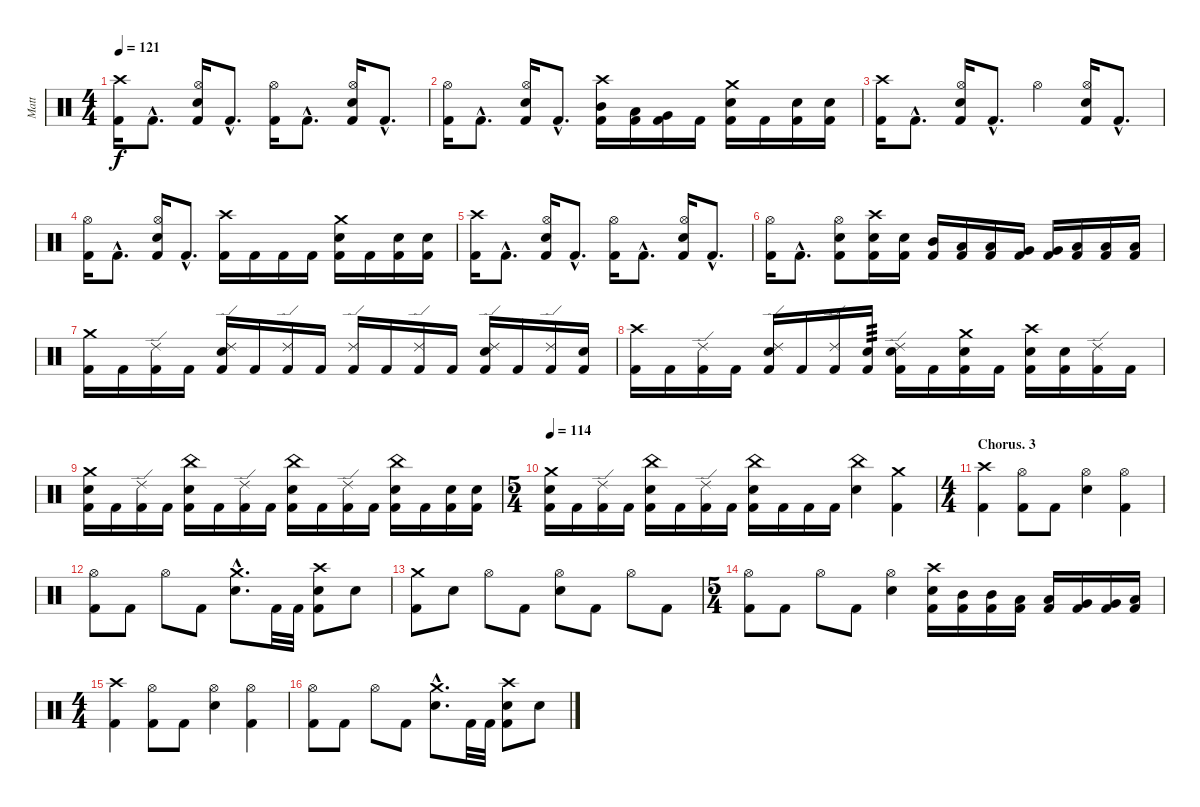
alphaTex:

\track ("Matt" "Matt") {instrument percussion}
\staff {score}
\articulation defaults
\ts (4 4)
\tempo 121
\clef neutral
\ks c
("Crash high (hit)" "Kick (hit) 2").16{dy f} "Kick (hit) 2"{hac}.8{d} ("Hi-Hat (open)" "Electric Snare (hit)" "Kick (hit) 2").16 "Kick (hit) 2"{hac}.8{d} ("Hi-Hat (open)" "Kick (hit) 2").16 "Kick (hit) 2"{hac}.8{d} ("Hi-Hat (open)" "Electric Snare (hit)" "Kick (hit) 2").16 "Kick (hit) 2"{hac}.8{d} |
("Hi-Hat (open)" "Kick (hit) 2").16 "Kick (hit) 2"{hac}.8{d} ("Hi-Hat (open)" "Electric Snare (hit)" "Kick (hit) 2").16 "Kick (hit) 2"{hac}.8{d} ("Crash high (hit)" "Mid Tom (hit)" "Kick (hit) 2").16 ("Low Tom (hit)" "Kick (hit) 2").16 ("Very Low Tom (hit)" "Kick (hit) 2").16 "Kick (hit) 2".16 ("Crash medium (hit)" "Electric Snare (hit)" "Kick (hit) 2").16 "Kick (hit) 2".16 ("Electric Snare (hit)" "Kick (hit) 2").16 ("Electric Snare (hit)" "Kick (hit) 2").16 |
("Crash high (hit)" "Kick (hit) 2").16 "Kick (hit) 2"{hac}.8{d} ("Hi-Hat (open)" "Electric Snare (hit)" "Kick (hit) 2").16 "Kick (hit) 2"{hac}.8{d} "Hi-Hat (open)".4 ("Hi-Hat (open)" "Electric Snare (hit)" "Kick (hit) 2").16 "Kick (hit) 2"{hac}.8{d} |
("Hi-Hat (open)" "Kick (hit) 2").16 "Kick (hit) 2"{hac}.8{d} ("Hi-Hat (open)" "Electric Snare (hit)" "Kick (hit) 2").16 "Kick (hit) 2"{hac}.8{d} ("Crash high (hit)" "Kick (hit) 2").16 "Kick (hit) 2".16 "Kick (hit) 2".16 "Kick (hit) 2".16 ("Crash medium (hit)" "Electric Snare (hit)" "Kick (hit) 2").16 "Kick (hit) 2".16 ("Electric Snare (hit)" "Kick (hit) 2").16 ("Electric Snare (hit)" "Kick (hit) 2").16 |
("Crash high (hit)" "Kick (hit) 2").16 "Kick (hit) 2"{hac}.8{d} ("Hi-Hat (open)" "Electric Snare (hit)" "Kick (hit) 2").16 "Kick (hit) 2"{hac}.8{d} ("Hi-Hat (open)" "Kick (hit) 2").16 "Kick (hit) 2"{hac}.8{d} ("Hi-Hat (open)" "Electric Snare (hit)" "Kick (hit) 2").16 "Kick (hit) 2"{hac}.8{d} |
("Hi-Hat (open)" "Kick (hit) 2").16 "Kick (hit) 2"{hac}.8{d} ("Hi-Hat (open)" "Electric Snare (hit)" "Kick (hit) 2").8 ("Crash high (hit)" "Electric Snare (hit)" "Kick (hit) 2").16 ("Electric Snare (hit)" "Kick (hit) 2").16 ("Mid Tom (hit)" "Kick (hit) 2").16 ("Low Tom (hit)" "Kick (hit) 2").16 ("Low Tom (hit)" "Kick (hit) 2").16 ("Very Low Tom (hit)" "Kick (hit) 2").16 ("Very Low Tom (hit)" "Kick (hit) 2").16 ("Low Floor Tom (hit)" "Kick (hit) 2").16 ("Low Floor Tom (hit)" "Kick (hit) 2").16 ("Low Floor Tom (hit)" "Kick (hit) 2").16 |
("Crash medium (hit)" "Kick (hit) 2").16 "Kick (hit) 2".16 ("Ride (edge) 2" "Kick (hit) 2").16 "Kick (hit) 2".16 ("Ride (edge) 2" "Electric Snare (hit)" "Kick (hit) 2").16 "Kick (hit) 2".16 ("Ride (edge) 2" "Kick (hit) 2").16 "Kick (hit) 2".16 ("Ride (edge) 2" "Kick (hit) 2").16 "Kick (hit) 2".16 ("Ride (edge) 2" "Kick (hit) 2").16 "Kick (hit) 2".16 ("Ride (edge) 2" "Electric Snare (hit)" "Kick (hit) 2").16 "Kick (hit) 2".16 ("Ride (edge) 2" "Kick (hit) 2").16 ("Electric Snare (hit)" "Kick (hit) 2").16 |
("Crash high (hit)" "Kick (hit) 2").16 "Kick (hit) 2".16 ("Ride (edge) 2" "Kick (hit) 2").16 "Kick (hit) 2".16 ("Ride (edge) 2" "Electric Snare (hit)" "Kick (hit) 2").16 "Kick (hit) 2".16 ("Ride (edge) 2" "Kick (hit) 2").16 ("Electric Snare (hit)" "Kick (hit) 2").16{tp 3} ("Ride (edge) 2" "Electric Snare (hit)" "Kick (hit) 2").16 "Kick (hit) 2".16 ("Crash medium (hit)" "Electric Snare (hit)" "Kick (hit) 2").16 "Kick (hit) 2".16 ("Crash high (hit)" "Electric Snare (hit)" "Kick (hit) 2").16 ("Electric Snare (hit)" "Kick (hit) 2").16 ("Ride (edge) 2" "Kick (hit) 2").16 "Kick (hit) 2".16 |
("Crash medium (hit)" "Electric Snare (hit)" "Kick (hit) 2").16 "Kick (hit) 2".16 ("Ride (edge) 2" "Kick (hit) 2").16 "Kick (hit) 2".16 ("China (hit)" "Electric Snare (hit)" "Kick (hit) 2").16 "Kick (hit) 2".16 ("Ride (edge) 2" "Kick (hit) 2").16 "Kick (hit) 2".16 ("China (hit)" "Electric Snare (hit)" "Kick (hit) 2").16 "Kick (hit) 2".16 ("Ride (edge) 2" "Kick (hit) 2").16 "Kick (hit) 2".16 ("China (hit)" "Electric Snare (hit)" "Kick (hit) 2").16 "Kick (hit) 2".16 ("Electric Snare (hit)" "Kick (hit) 2").16 ("Electric Snare (hit)" "Kick (hit) 2").16 |
\ts (5 4)
\tempo 114
("Crash medium (hit)" "Electric Snare (hit)" "Kick (hit) 2").16 "Kick (hit) 2".16 ("Ride (edge) 2" "Kick (hit) 2").16 "Kick (hit) 2".16 ("China (hit)" "Electric Snare (hit)" "Kick (hit) 2").16 "Kick (hit) 2".16 ("Ride (edge) 2" "Kick (hit) 2").16 "Kick (hit) 2".16 ("China (hit)" "Electric Snare (hit)" "Kick (hit) 2").16 "Kick (hit) 2".16 "Kick (hit) 2".16 "Kick (hit) 2".16 ("China (hit)" "Electric Snare (hit)").4 ("Crash medium (hit)" "Kick (hit) 2").4 |
\ts (4 4)
\section ("" "Chorus. 3")
("Crash high (hit)" "Kick (hit) 2").4 ("Hi-Hat (open)" "Kick (hit) 2").8 "Kick (hit) 2".8 ("Hi-Hat (open)" "Electric Snare (hit)").4 ("Hi-Hat (open)" "Kick (hit) 2").4 |
("Hi-Hat (open)" "Kick (hit) 2").8 "Kick (hit) 2".8 "Hi-Hat (open)".8 "Kick (hit) 2".8 ("Crash medium (hit)"{hac} "Electric Snare (hit)"{hac}).8{d} "Kick (hit) 2".32 "Kick (hit) 2".32 ("Crash high (hit)" "Electric Snare (hit)" "Kick (hit) 2").8 "Electric Snare (hit)".8 |
("Crash medium (hit)" "Kick (hit) 2").8 "Electric Snare (hit)".8 "Hi-Hat (open)".8 "Kick (hit) 2".8 ("Hi-Hat (open)" "Electric Snare (hit)").8 "Kick (hit) 2".8 "Hi-Hat (open)".8 "Kick (hit) 2".8 |
\ts (5 4)
("Hi-Hat (open)" "Kick (hit) 2").8 "Kick (hit) 2".8 "Hi-Hat (open)".8 "Kick (hit) 2".8 ("Hi-Hat (open)" "Electric Snare (hit)").4 ("Crash high (hit)" "Electric Snare (hit)" "Kick (hit) 2").16 ("Mid Tom (hit)" "Kick (hit) 2").16 ("Mid Tom (hit)" "Kick (hit) 2").16 ("Low Tom (hit)" "Kick (hit) 2").16 ("Low Tom (hit)" "Kick (hit) 2").16 ("Very Low Tom (hit)" "Kick (hit) 2").16 ("Very Low Tom (hit)" "Kick (hit) 2").16 ("Low Floor Tom (hit)" "Kick (hit) 2").16 |
\ts (4 4)
("Crash high (hit)" "Kick (hit) 2").4 ("Hi-Hat (open)" "Kick (hit) 2").8 "Kick (hit) 2".8 ("Hi-Hat (open)" "Electric Snare (hit)").4 ("Hi-Hat (open)" "Kick (hit) 2").4 |
("Hi-Hat (open)" "Kick (hit) 2").8 "Kick (hit) 2".8 "Hi-Hat (open)".8 "Kick (hit) 2".8 ("Crash medium (hit)"{hac} "Electric Snare (hit)"{hac}).8{d} "Kick (hit) 2".32 "Kick (hit) 2".32 ("Crash high (hit)" "Electric Snare (hit)" "Kick (hit) 2").8 "Electric Snare (hit)".8
